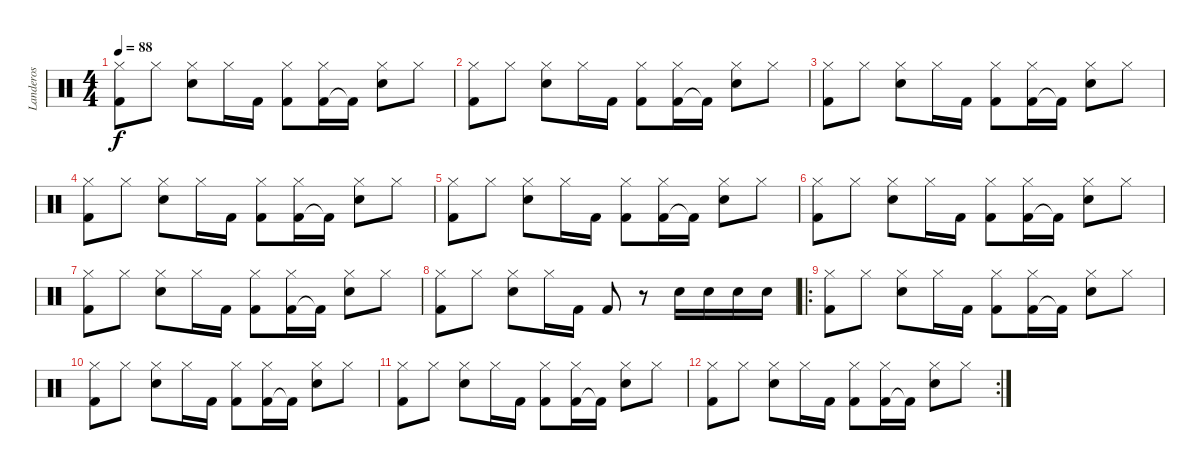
\track ("Landeros" "Landeros") {instrument percussion}
\staff {score}
\articulation defaults
\ts (4 4)
\tempo 88
\clef neutral
\ks c
("Kick (hit) 2" "Hi-Hat (closed)").8{dy f} "Hi-Hat (closed)".8 ("Electric Snare (hit)" "Hi-Hat (closed)").8 "Hi-Hat (closed)".16 "Kick (hit) 2".16 ("Kick (hit) 2" "Hi-Hat (closed)").8 ("Kick (hit) 2" "Hi-Hat (closed)").16 "Kick (hit) 2"{t}.16 ("Electric Snare (hit)" "Hi-Hat (closed)").8 "Hi-Hat (closed)".8 |
("Kick (hit) 2" "Hi-Hat (closed)").8 "Hi-Hat (closed)".8 ("Electric Snare (hit)" "Hi-Hat (closed)").8 "Hi-Hat (closed)".16 "Kick (hit) 2".16 ("Kick (hit) 2" "Hi-Hat (closed)").8 ("Kick (hit) 2" "Hi-Hat (closed)").16 "Kick (hit) 2"{t}.16 ("Electric Snare (hit)" "Hi-Hat (closed)").8 "Hi-Hat (closed)".8 |
("Kick (hit) 2" "Hi-Hat (closed)").8 "Hi-Hat (closed)".8 ("Electric Snare (hit)" "Hi-Hat (closed)").8 "Hi-Hat (closed)".16 "Kick (hit) 2".16 ("Kick (hit) 2" "Hi-Hat (closed)").8 ("Kick (hit) 2" "Hi-Hat (closed)").16 "Kick (hit) 2"{t}.16 ("Electric Snare (hit)" "Hi-Hat (closed)").8 "Hi-Hat (closed)".8 |
("Kick (hit) 2" "Hi-Hat (closed)").8 "Hi-Hat (closed)".8 ("Electric Snare (hit)" "Hi-Hat (closed)").8 "Hi-Hat (closed)".16 "Kick (hit) 2".16 ("Kick (hit) 2" "Hi-Hat (closed)").8 ("Kick (hit) 2" "Hi-Hat (closed)").16 "Kick (hit) 2"{t}.16 ("Electric Snare (hit)" "Hi-Hat (closed)").8 "Hi-Hat (closed)".8 |
("Kick (hit) 2" "Hi-Hat (closed)").8 "Hi-Hat (closed)".8 ("Electric Snare (hit)" "Hi-Hat (closed)").8 "Hi-Hat (closed)".16 "Kick (hit) 2".16 ("Kick (hit) 2" "Hi-Hat (closed)").8 ("Kick (hit) 2" "Hi-Hat (closed)").16 "Kick (hit) 2"{t}.16 ("Electric Snare (hit)" "Hi-Hat (closed)").8 "Hi-Hat (closed)".8 |
("Kick (hit) 2" "Hi-Hat (closed)").8 "Hi-Hat (closed)".8 ("Electric Snare (hit)" "Hi-Hat (closed)").8 "Hi-Hat (closed)".16 "Kick (hit) 2".16 ("Kick (hit) 2" "Hi-Hat (closed)").8 ("Kick (hit) 2" "Hi-Hat (closed)").16 "Kick (hit) 2"{t}.16 ("Electric Snare (hit)" "Hi-Hat (closed)").8 "Hi-Hat (closed)".8 |
("Kick (hit) 2" "Hi-Hat (closed)").8 "Hi-Hat (closed)".8 ("Electric Snare (hit)" "Hi-Hat (closed)").8 "Hi-Hat (closed)".16 "Kick (hit) 2".16 ("Kick (hit) 2" "Hi-Hat (closed)").8 ("Kick (hit) 2" "Hi-Hat (closed)").16 "Kick (hit) 2"{t}.16 ("Electric Snare (hit)" "Hi-Hat (closed)").8 "Hi-Hat (closed)".8 |
("Kick (hit) 2" "Hi-Hat (closed)").8 "Hi-Hat (closed)".8 ("Electric Snare (hit)" "Hi-Hat (closed)").8 "Hi-Hat (closed)".16 "Kick (hit) 2".16 "Kick (hit) 2".8 r.8 "Electric Snare (hit)".16 "Electric Snare (hit)".16 "Electric Snare (hit)".16 "Electric Snare (hit)".16 |
\ro
("Kick (hit) 2" "Hi-Hat (closed)").8 "Hi-Hat (closed)".8 ("Electric Snare (hit)" "Hi-Hat (closed)").8 "Hi-Hat (closed)".16 "Kick (hit) 2".16 ("Kick (hit) 2" "Hi-Hat (closed)").8 ("Kick (hit) 2" "Hi-Hat (closed)").16 "Kick (hit) 2"{t}.16 ("Electric Snare (hit)" "Hi-Hat (closed)").8 "Hi-Hat (closed)".8 |
("Kick (hit) 2" "Hi-Hat (closed)").8 "Hi-Hat (closed)".8 ("Electric Snare (hit)" "Hi-Hat (closed)").8 "Hi-Hat (closed)".16 "Kick (hit) 2".16 ("Kick (hit) 2" "Hi-Hat (closed)").8 ("Kick (hit) 2" "Hi-Hat (closed)").16 "Kick (hit) 2"{t}.16 ("Electric Snare (hit)" "Hi-Hat (closed)").8 "Hi-Hat (closed)".8 |
("Kick (hit) 2" "Hi-Hat (closed)").8 "Hi-Hat (closed)".8 ("Electric Snare (hit)" "Hi-Hat (closed)").8 "Hi-Hat (closed)".16 "Kick (hit) 2".16 ("Kick (hit) 2" "Hi-Hat (closed)").8 ("Kick (hit) 2" "Hi-Hat (closed)").16 "Kick (hit) 2"{t}.16 ("Electric Snare (hit)" "Hi-Hat (closed)").8 "Hi-Hat (closed)".8 |
\rc 2
("Kick (hit) 2" "Hi-Hat (closed)").8 "Hi-Hat (closed)".8 ("Electric Snare (hit)" "Hi-Hat (closed)").8 "Hi-Hat (closed)".16 "Kick (hit) 2".16 ("Kick (hit) 2" "Hi-Hat (closed)").8 ("Kick (hit) 2" "Hi-Hat (closed)").16 "Kick (hit) 2"{t}.16 ("Electric Snare (hit)" "Hi-Hat (closed)").8 "Hi-Hat (closed)".8
